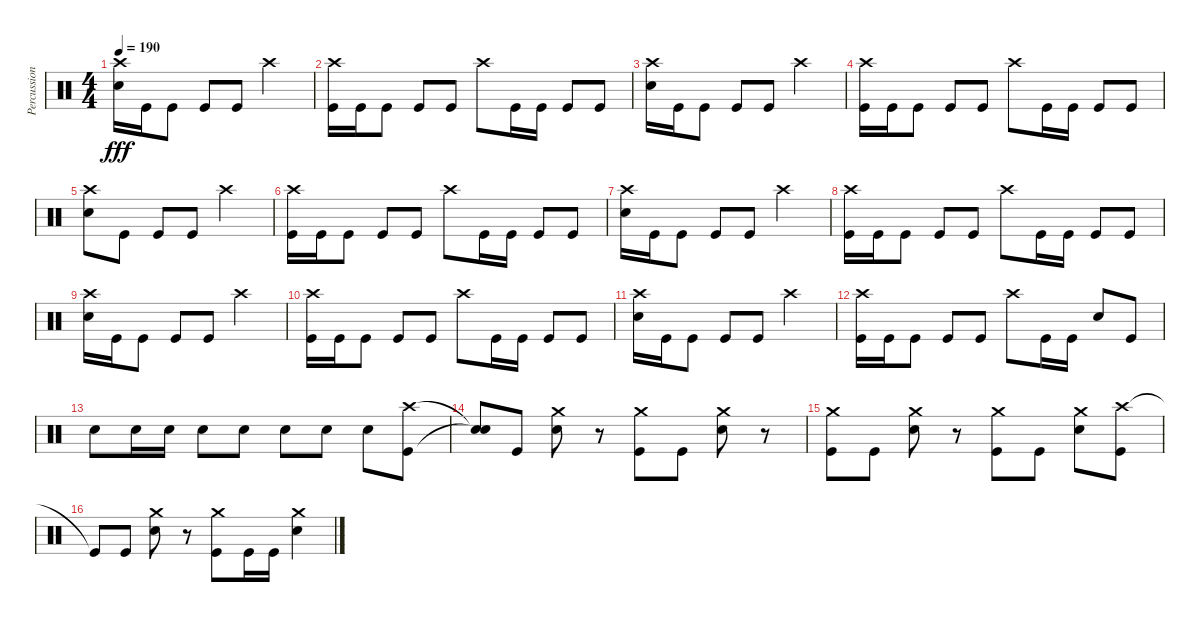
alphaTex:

\track ("Percussion" "Percussion") {instrument percussion}
\staff {score}
\articulation defaults
\ts (4 4)
\tempo 190
\clef neutral
\ks c
("Crash high (hit)" "Snare (hit) 2").16{dy fff} "Kick (hit)".16 "Kick (hit)".8 "Kick (hit)".8 "Kick (hit)".8 "Crash high (hit)".2 |
("Crash high (hit)" "Kick (hit)").16 "Kick (hit)".16 "Kick (hit)".8 "Kick (hit)".8 "Kick (hit)".8 "Crash high (hit)".8 "Kick (hit)".16 "Kick (hit)".16 "Kick (hit)".8 "Kick (hit)".8 |
("Crash high (hit)" "Snare (hit) 2").16 "Kick (hit)".16 "Kick (hit)".8 "Kick (hit)".8 "Kick (hit)".8 "Crash high (hit)".2 |
("Crash high (hit)" "Kick (hit)").16 "Kick (hit)".16 "Kick (hit)".8 "Kick (hit)".8 "Kick (hit)".8 "Crash high (hit)".8 "Kick (hit)".16 "Kick (hit)".16 "Kick (hit)".8 "Kick (hit)".8 |
("Crash high (hit)" "Snare (hit) 2").8 "Kick (hit)".8 "Kick (hit)".8 "Kick (hit)".8 "Crash high (hit)".2 |
("Crash high (hit)" "Kick (hit)").16 "Kick (hit)".16 "Kick (hit)".8 "Kick (hit)".8 "Kick (hit)".8 "Crash high (hit)".8 "Kick (hit)".16 "Kick (hit)".16 "Kick (hit)".8 "Kick (hit)".8 |
("Crash high (hit)" "Snare (hit) 2").16 "Kick (hit)".16 "Kick (hit)".8 "Kick (hit)".8 "Kick (hit)".8 "Crash high (hit)".2 |
("Crash high (hit)" "Kick (hit)").16 "Kick (hit)".16 "Kick (hit)".8 "Kick (hit)".8 "Kick (hit)".8 "Crash high (hit)".8 "Kick (hit)".16 "Kick (hit)".16 "Kick (hit)".8 "Kick (hit)".8 |
("Crash high (hit)" "Snare (hit) 2").16 "Kick (hit)".16 "Kick (hit)".8 "Kick (hit)".8 "Kick (hit)".8 "Crash high (hit)".2 |
("Crash high (hit)" "Kick (hit)").16 "Kick (hit)".16 "Kick (hit)".8 "Kick (hit)".8 "Kick (hit)".8 "Crash high (hit)".8 "Kick (hit)".16 "Kick (hit)".16 "Kick (hit)".8 "Kick (hit)".8 |
("Crash high (hit)" "Snare (hit) 2").16 "Kick (hit)".16 "Kick (hit)".8 "Kick (hit)".8 "Kick (hit)".8 "Crash high (hit)".2 |
("Crash high (hit)" "Kick (hit)").16 "Kick (hit)".16 "Kick (hit)".8 "Kick (hit)".8 "Kick (hit)".8 "Crash high (hit)".8 "Kick (hit)".16 "Kick (hit)".16 "Snare (hit) 2".8 "Kick (hit)".8 |
"Snare (hit) 2".8 "Snare (hit) 2".16 "Snare (hit) 2".16 "Snare (hit) 2".8 "Snare (hit) 2".8 "Snare (hit) 2".8 "Snare (hit) 2".8 "Snare (hit) 2".8 ("Crash high (hit)" "Kick (hit)").8 |
("Snare (hit)"{t} "Snare (hit)"{t}).8 "Kick (hit)".8 ("Crash medium (hit)" "Snare (hit) 2").8 r.8 ("Crash medium (hit)" "Kick (hit)").8 "Kick (hit)".8 ("Crash medium (hit)" "Snare (hit) 2").8 r.8 |
("Crash medium (hit)" "Kick (hit)").8 "Kick (hit)".8 ("Crash medium (hit)" "Snare (hit) 2").8 r.8 ("Crash medium (hit)" "Kick (hit)").8 "Kick (hit)".8 ("Crash medium (hit)" "Snare (hit) 2").8 ("Crash high (hit)" "Kick (hit)").8 |
"Kick (hit)"{t}.8 "Kick (hit)".8 ("Crash medium (hit)" "Snare (hit) 2").8 r.8 ("Crash medium (hit)" "Kick (hit)").8 "Kick (hit)".16 "Kick (hit)".16 ("Crash medium (hit)" "Snare (hit) 2").4
